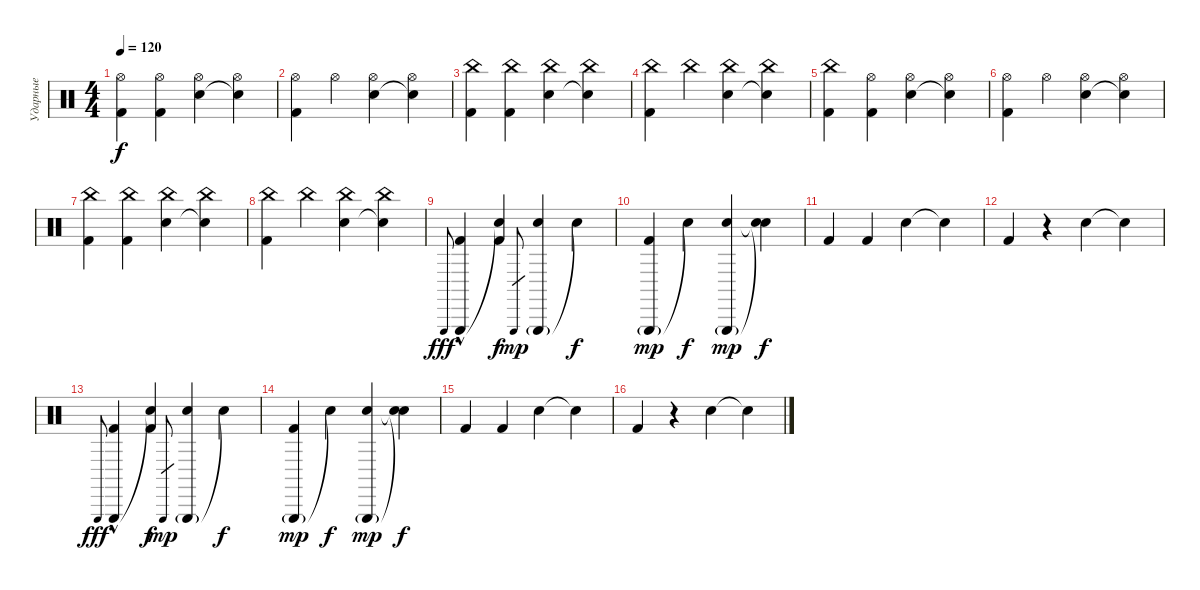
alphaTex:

\track ("Ударные" "Ударные") {instrument percussion}
\staff {score}
\articulation defaults
\ts (4 4)
\tempo 120
\clef neutral
\ks c
("Hi-Hat (open)" "Kick (hit) 2").4{dy f} ("Hi-Hat (open)" "Kick (hit) 2").4 ("Hi-Hat (open)" "Electric Snare (hit)").4 ("Hi-Hat (open)" "Snare (hit)"{t}).4 |
("Hi-Hat (open)" "Kick (hit) 2").4 "Hi-Hat (open)".4 ("Hi-Hat (open)" "Electric Snare (hit)").4 ("Hi-Hat (open)" "Snare (hit)"{t}).4 |
("China (hit)" "Kick (hit) 2").4 ("China (hit)" "Kick (hit) 2").4 ("China (hit)" "Electric Snare (hit)").4 ("China (hit)" "Snare (hit)"{t}).4 |
("China (hit)" "Kick (hit) 2").4 "China (hit)".4 ("China (hit)" "Electric Snare (hit)").4 ("China (hit)" "Snare (hit)"{t}).4 |
("China (hit)" "Kick (hit) 2").4 ("Hi-Hat (open)" "Kick (hit) 2").4 ("Hi-Hat (open)" "Electric Snare (hit)").4 ("Hi-Hat (open)" "Snare (hit)"{t}).4 |
("Hi-Hat (open)" "Kick (hit) 2").4 "Hi-Hat (open)".4 ("Hi-Hat (open)" "Electric Snare (hit)").4 ("Hi-Hat (open)" "Snare (hit)"{t}).4 |
("China (hit)" "Kick (hit) 2").4 ("China (hit)" "Kick (hit) 2").4 ("China (hit)" "Electric Snare (hit)").4 ("China (hit)" "Snare (hit)"{t}).4 |
("China (hit)" "Kick (hit) 2").4 "China (hit)".4 ("China (hit)" "Electric Snare (hit)").4 ("China (hit)" "Snare (hit)"{t}).4 |
"Triangle (hit)".8{gr onbeat dy fff} ("Triangle (hit)"{hac} "Kick (hit) 2").4{volume 13} ("Snare (hit)"{t} "Kick (hit) 2").4{dy f} "Triangle (hit)".8{gr dy mp} ("Triangle (hit)"{g} "Electric Snare (hit)").4 "Snare (hit)"{t}.4{dy f} |
("Triangle (hit)"{g} "Kick (hit) 2").4{dy mp} "Snare (hit)"{t}.4{dy f} ("Triangle (hit)"{g} "Electric Snare (hit)").4{dy mp} ("Snare (hit)"{t} "Snare (hit)"{t}).4{dy f} |
"Kick (hit) 2".4 "Kick (hit) 2".4 "Electric Snare (hit)".4 "Snare (hit)"{t}.4 |
"Kick (hit) 2".4 r.4 "Electric Snare (hit)".4 "Snare (hit)"{t}.4 |
"Triangle (hit)".8{gr onbeat dy fff} ("Triangle (hit)"{hac} "Kick (hit) 2").4{volume 13} ("Snare (hit)"{t} "Kick (hit) 2").4{dy f} "Triangle (hit)".8{gr dy mp} ("Triangle (hit)"{g} "Electric Snare (hit)").4 "Snare (hit)"{t}.4{dy f} |
("Triangle (hit)"{g} "Kick (hit) 2").4{dy mp} "Snare (hit)"{t}.4{dy f} ("Triangle (hit)"{g} "Electric Snare (hit)").4{dy mp} ("Snare (hit)"{t} "Snare (hit)"{t}).4{dy f} |
"Kick (hit) 2".4 "Kick (hit) 2".4 "Electric Snare (hit)".4 "Snare (hit)"{t}.4 |
"Kick (hit) 2".4 r.4 "Electric Snare (hit)".4 "Snare (hit)"{t}.4
